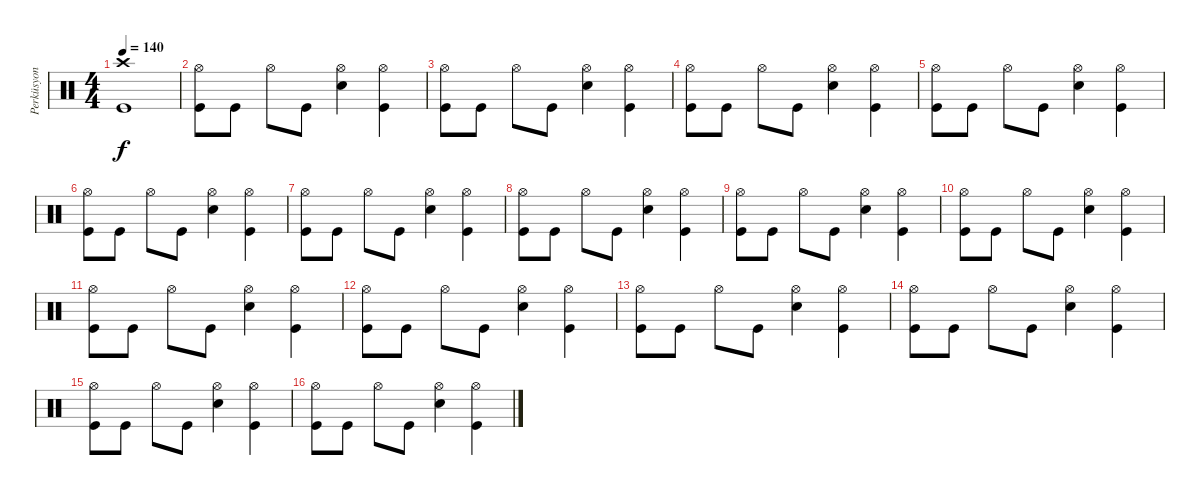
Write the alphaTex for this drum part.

\track ("Perküsyon" "Perküsyon") {instrument percussion}
\staff {score}
\articulation defaults
\ts (4 4)
\tempo 140
\clef neutral
\ks c
("Crash high (hit)" "Kick (hit)").1{dy f} |
("Hi-Hat (open)" "Kick (hit)").8 "Kick (hit)".8 "Hi-Hat (open)".8 "Kick (hit)".8 ("Hi-Hat (open)" "Snare (hit) 2").4 ("Hi-Hat (open)" "Kick (hit)").4 |
("Hi-Hat (open)" "Kick (hit)").8 "Kick (hit)".8 "Hi-Hat (open)".8 "Kick (hit)".8 ("Hi-Hat (open)" "Snare (hit) 2").4 ("Hi-Hat (open)" "Kick (hit)").4 |
("Hi-Hat (open)" "Kick (hit)").8 "Kick (hit)".8 "Hi-Hat (open)".8 "Kick (hit)".8 ("Hi-Hat (open)" "Snare (hit) 2").4 ("Hi-Hat (open)" "Kick (hit)").4 |
("Hi-Hat (open)" "Kick (hit)").8 "Kick (hit)".8 "Hi-Hat (open)".8 "Kick (hit)".8 ("Hi-Hat (open)" "Snare (hit) 2").4 ("Hi-Hat (open)" "Kick (hit)").4 |
("Hi-Hat (open)" "Kick (hit)").8 "Kick (hit)".8 "Hi-Hat (open)".8 "Kick (hit)".8 ("Hi-Hat (open)" "Snare (hit) 2").4 ("Hi-Hat (open)" "Kick (hit)").4 |
("Hi-Hat (open)" "Kick (hit)").8 "Kick (hit)".8 "Hi-Hat (open)".8 "Kick (hit)".8 ("Hi-Hat (open)" "Snare (hit) 2").4 ("Hi-Hat (open)" "Kick (hit)").4 |
("Hi-Hat (open)" "Kick (hit)").8 "Kick (hit)".8 "Hi-Hat (open)".8 "Kick (hit)".8 ("Hi-Hat (open)" "Snare (hit) 2").4 ("Hi-Hat (open)" "Kick (hit)").4 |
("Hi-Hat (open)" "Kick (hit)").8 "Kick (hit)".8 "Hi-Hat (open)".8 "Kick (hit)".8 ("Hi-Hat (open)" "Snare (hit) 2").4 ("Hi-Hat (open)" "Kick (hit)").4 |
("Hi-Hat (open)" "Kick (hit)").8 "Kick (hit)".8 "Hi-Hat (open)".8 "Kick (hit)".8 ("Hi-Hat (open)" "Snare (hit) 2").4 ("Hi-Hat (open)" "Kick (hit)").4 |
("Hi-Hat (open)" "Kick (hit)").8 "Kick (hit)".8 "Hi-Hat (open)".8 "Kick (hit)".8 ("Hi-Hat (open)" "Snare (hit) 2").4 ("Hi-Hat (open)" "Kick (hit)").4 |
("Hi-Hat (open)" "Kick (hit)").8 "Kick (hit)".8 "Hi-Hat (open)".8 "Kick (hit)".8 ("Hi-Hat (open)" "Snare (hit) 2").4 ("Hi-Hat (open)" "Kick (hit)").4 |
("Hi-Hat (open)" "Kick (hit)").8 "Kick (hit)".8 "Hi-Hat (open)".8 "Kick (hit)".8 ("Hi-Hat (open)" "Snare (hit) 2").4 ("Hi-Hat (open)" "Kick (hit)").4 |
("Hi-Hat (open)" "Kick (hit)").8 "Kick (hit)".8 "Hi-Hat (open)".8 "Kick (hit)".8 ("Hi-Hat (open)" "Snare (hit) 2").4 ("Hi-Hat (open)" "Kick (hit)").4 |
("Hi-Hat (open)" "Kick (hit)").8 "Kick (hit)".8 "Hi-Hat (open)".8 "Kick (hit)".8 ("Hi-Hat (open)" "Snare (hit) 2").4 ("Hi-Hat (open)" "Kick (hit)").4 |
("Hi-Hat (open)" "Kick (hit)").8 "Kick (hit)".8 "Hi-Hat (open)".8 "Kick (hit)".8 ("Hi-Hat (open)" "Snare (hit) 2").4 ("Hi-Hat (open)" "Kick (hit)").4
